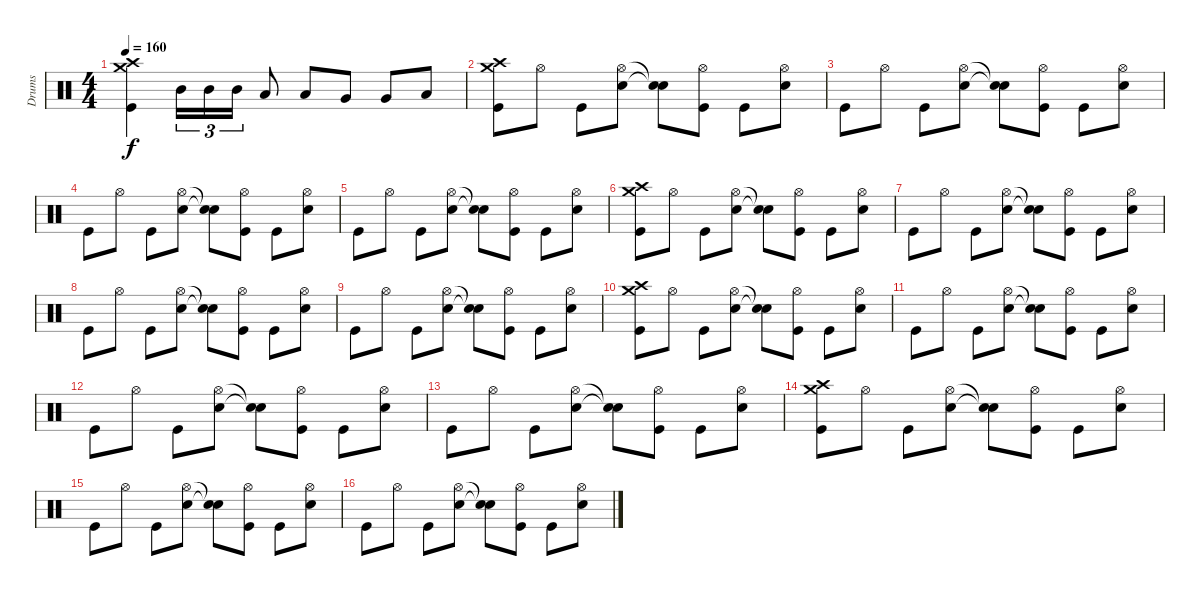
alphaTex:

\track ("Drums" "Drums") {instrument percussion}
\staff {score}
\articulation defaults
\ts (4 4)
\tempo 160
\clef neutral
\ks c
("Kick (hit)" "Crash medium (hit)" "Crash high (hit)").4{dy f} "Mid Tom (hit)".16{tu (3 2)} "Mid Tom (hit)".16{tu (3 2)} "Mid Tom (hit)".16{tu (3 2)} "Low Tom (hit)".8 "Low Tom (hit)".8 "Very Low Tom (hit)".8 "Very Low Tom (hit)".8 "Low Floor Tom (hit)".8 |
("Kick (hit)" "Crash medium (hit)" "Crash high (hit)").8 "Hi-Hat (open)".8 "Kick (hit)".8 ("Hi-Hat (open)" "Electric Snare (hit)").8 ("Snare (hit)"{t} "Snare (hit)"{t}).8 ("Kick (hit)" "Hi-Hat (open)").8 "Kick (hit)".8 ("Hi-Hat (open)" "Electric Snare (hit)").8 |
"Kick (hit)".8 "Hi-Hat (open)".8 "Kick (hit)".8 ("Hi-Hat (open)" "Electric Snare (hit)").8 ("Snare (hit)"{t} "Snare (hit)"{t}).8 ("Kick (hit)" "Hi-Hat (open)").8 "Kick (hit)".8 ("Hi-Hat (open)" "Electric Snare (hit)").8 |
"Kick (hit)".8 "Hi-Hat (open)".8 "Kick (hit)".8 ("Hi-Hat (open)" "Electric Snare (hit)").8 ("Snare (hit)"{t} "Snare (hit)"{t}).8 ("Kick (hit)" "Hi-Hat (open)").8 "Kick (hit)".8 ("Hi-Hat (open)" "Electric Snare (hit)").8 |
"Kick (hit)".8 "Hi-Hat (open)".8 "Kick (hit)".8 ("Hi-Hat (open)" "Electric Snare (hit)").8 ("Snare (hit)"{t} "Snare (hit)"{t}).8 ("Kick (hit)" "Hi-Hat (open)").8 "Kick (hit)".8 ("Hi-Hat (open)" "Electric Snare (hit)").8 |
("Kick (hit)" "Crash medium (hit)" "Crash high (hit)").8 "Hi-Hat (open)".8 "Kick (hit)".8 ("Hi-Hat (open)" "Electric Snare (hit)").8 ("Snare (hit)"{t} "Snare (hit)"{t}).8 ("Kick (hit)" "Hi-Hat (open)").8 "Kick (hit)".8 ("Hi-Hat (open)" "Electric Snare (hit)").8 |
"Kick (hit)".8 "Hi-Hat (open)".8 "Kick (hit)".8 ("Hi-Hat (open)" "Electric Snare (hit)").8 ("Snare (hit)"{t} "Snare (hit)"{t}).8 ("Kick (hit)" "Hi-Hat (open)").8 "Kick (hit)".8 ("Hi-Hat (open)" "Electric Snare (hit)").8 |
"Kick (hit)".8 "Hi-Hat (open)".8 "Kick (hit)".8 ("Hi-Hat (open)" "Electric Snare (hit)").8 ("Snare (hit)"{t} "Snare (hit)"{t}).8 ("Kick (hit)" "Hi-Hat (open)").8 "Kick (hit)".8 ("Hi-Hat (open)" "Electric Snare (hit)").8 |
"Kick (hit)".8 "Hi-Hat (open)".8 "Kick (hit)".8 ("Hi-Hat (open)" "Electric Snare (hit)").8 ("Snare (hit)"{t} "Snare (hit)"{t}).8 ("Kick (hit)" "Hi-Hat (open)").8 "Kick (hit)".8 ("Hi-Hat (open)" "Electric Snare (hit)").8 |
("Kick (hit)" "Crash medium (hit)" "Crash high (hit)").8 "Hi-Hat (open)".8 "Kick (hit)".8 ("Hi-Hat (open)" "Electric Snare (hit)").8 ("Snare (hit)"{t} "Snare (hit)"{t}).8 ("Kick (hit)" "Hi-Hat (open)").8 "Kick (hit)".8 ("Hi-Hat (open)" "Electric Snare (hit)").8 |
"Kick (hit)".8 "Hi-Hat (open)".8 "Kick (hit)".8 ("Hi-Hat (open)" "Electric Snare (hit)").8 ("Snare (hit)"{t} "Snare (hit)"{t}).8 ("Kick (hit)" "Hi-Hat (open)").8 "Kick (hit)".8 ("Hi-Hat (open)" "Electric Snare (hit)").8 |
"Kick (hit)".8 "Hi-Hat (open)".8 "Kick (hit)".8 ("Hi-Hat (open)" "Electric Snare (hit)").8 ("Snare (hit)"{t} "Snare (hit)"{t}).8 ("Kick (hit)" "Hi-Hat (open)").8 "Kick (hit)".8 ("Hi-Hat (open)" "Electric Snare (hit)").8 |
"Kick (hit)".8 "Hi-Hat (open)".8 "Kick (hit)".8 ("Hi-Hat (open)" "Electric Snare (hit)").8 ("Snare (hit)"{t} "Snare (hit)"{t}).8 ("Kick (hit)" "Hi-Hat (open)").8 "Kick (hit)".8 ("Hi-Hat (open)" "Electric Snare (hit)").8 |
("Kick (hit)" "Crash medium (hit)" "Crash high (hit)").8 "Hi-Hat (open)".8 "Kick (hit)".8 ("Hi-Hat (open)" "Electric Snare (hit)").8 ("Snare (hit)"{t} "Snare (hit)"{t}).8 ("Kick (hit)" "Hi-Hat (open)").8 "Kick (hit)".8 ("Hi-Hat (open)" "Electric Snare (hit)").8 |
"Kick (hit)".8 "Hi-Hat (open)".8 "Kick (hit)".8 ("Hi-Hat (open)" "Electric Snare (hit)").8 ("Snare (hit)"{t} "Snare (hit)"{t}).8 ("Kick (hit)" "Hi-Hat (open)").8 "Kick (hit)".8 ("Hi-Hat (open)" "Electric Snare (hit)").8 |
"Kick (hit)".8 "Hi-Hat (open)".8 "Kick (hit)".8 ("Hi-Hat (open)" "Electric Snare (hit)").8 ("Snare (hit)"{t} "Snare (hit)"{t}).8 ("Kick (hit)" "Hi-Hat (open)").8 "Kick (hit)".8 ("Hi-Hat (open)" "Electric Snare (hit)").8
